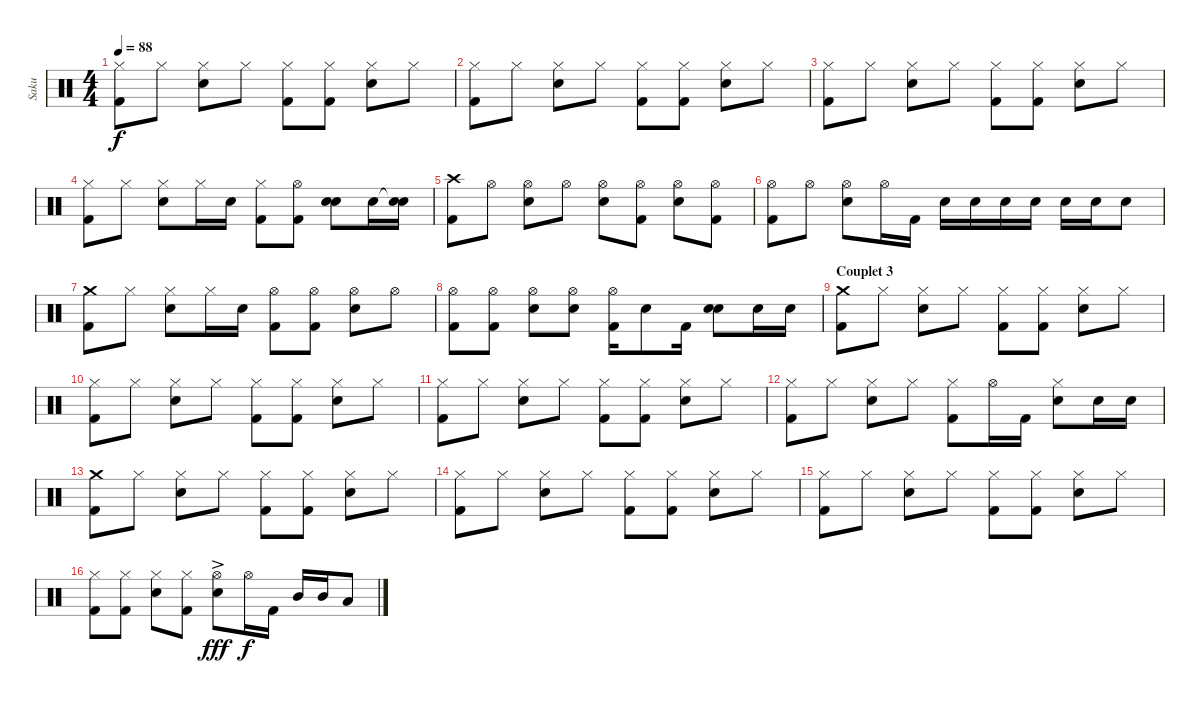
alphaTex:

\track ("Saku" "Saku") {instrument percussion}
\staff {score}
\articulation defaults
\ts (4 4)
\tempo 88
\clef neutral
\ks c
("Hi-Hat (closed)" "Kick (hit) 2").8{dy f} "Hi-Hat (closed)".8 ("Hi-Hat (closed)" "Electric Snare (hit)").8 "Hi-Hat (closed)".8 ("Hi-Hat (closed)" "Kick (hit) 2").8 ("Hi-Hat (closed)" "Kick (hit) 2").8 ("Hi-Hat (closed)" "Electric Snare (hit)").8 "Hi-Hat (closed)".8 |
("Hi-Hat (closed)" "Kick (hit) 2").8 "Hi-Hat (closed)".8 ("Hi-Hat (closed)" "Electric Snare (hit)").8 "Hi-Hat (closed)".8 ("Hi-Hat (closed)" "Kick (hit) 2").8 ("Hi-Hat (closed)" "Kick (hit) 2").8 ("Hi-Hat (closed)" "Electric Snare (hit)").8 "Hi-Hat (closed)".8 |
("Hi-Hat (closed)" "Kick (hit) 2").8 "Hi-Hat (closed)".8 ("Hi-Hat (closed)" "Electric Snare (hit)").8 "Hi-Hat (closed)".8 ("Hi-Hat (closed)" "Kick (hit) 2").8 ("Hi-Hat (closed)" "Kick (hit) 2").8 ("Hi-Hat (closed)" "Electric Snare (hit)").8 "Hi-Hat (closed)".8 |
("Hi-Hat (closed)" "Kick (hit) 2").8 "Hi-Hat (closed)".8 ("Hi-Hat (closed)" "Electric Snare (hit)").8 "Hi-Hat (closed)".16 "Electric Snare (hit)".16 ("Hi-Hat (closed)" "Kick (hit) 2").8 ("Hi-Hat (open)" "Kick (hit) 2").8 ("Electric Snare (hit)" "Electric Snare (hit)").8{bu 60} "Electric Snare (hit)".16 ("Snare (hit)"{t} "Electric Snare (hit)").16 |
("Crash high (hit)" "Kick (hit) 2").8 "Hi-Hat (open)".8 ("Hi-Hat (open)" "Electric Snare (hit)").8 "Hi-Hat (open)".8 ("Hi-Hat (open)" "Electric Snare (hit)").8 ("Hi-Hat (open)" "Kick (hit) 2").8 ("Hi-Hat (open)" "Electric Snare (hit)").8 ("Hi-Hat (open)" "Kick (hit) 2").8 |
("Hi-Hat (open)" "Kick (hit) 2").8 "Hi-Hat (open)".8 ("Hi-Hat (open)" "Electric Snare (hit)").8 "Hi-Hat (open)".16 "Kick (hit) 2".16 "Electric Snare (hit)".16 "Electric Snare (hit)".16 "Electric Snare (hit)".16 "Electric Snare (hit)".16 "Electric Snare (hit)".16 "Electric Snare (hit)".16 "Electric Snare (hit)".8 |
("Crash medium (hit)" "Kick (hit) 2").8 "Hi-Hat (closed)".8 ("Hi-Hat (closed)" "Electric Snare (hit)").8 "Hi-Hat (closed)".16 "Electric Snare (hit)".16 ("Hi-Hat (open)" "Kick (hit) 2").8 ("Hi-Hat (open)" "Kick (hit) 2").8 ("Hi-Hat (open)" "Electric Snare (hit)").8 "Hi-Hat (open)".8 |
("Hi-Hat (open)" "Kick (hit) 2").8 ("Hi-Hat (open)" "Kick (hit) 2").8 ("Hi-Hat (open)" "Electric Snare (hit)").8 ("Hi-Hat (open)" "Electric Snare (hit)").8 ("Hi-Hat (open)" "Kick (hit) 2").16 "Electric Snare (hit)".8 "Kick (hit) 2".16 ("Electric Snare (hit)" "Electric Snare (hit)").8{bu 60} "Electric Snare (hit)".16 "Electric Snare (hit)".16 |
\section ("" "Couplet 3")
("Crash medium (hit)" "Kick (hit) 2").8 "Hi-Hat (closed)".8 ("Hi-Hat (closed)" "Electric Snare (hit)").8 "Hi-Hat (closed)".8 ("Hi-Hat (closed)" "Kick (hit) 2").8 ("Hi-Hat (closed)" "Kick (hit) 2").8 ("Hi-Hat (closed)" "Electric Snare (hit)").8 "Hi-Hat (closed)".8 |
("Hi-Hat (closed)" "Kick (hit) 2").8 "Hi-Hat (closed)".8 ("Hi-Hat (closed)" "Electric Snare (hit)").8 "Hi-Hat (closed)".8 ("Hi-Hat (closed)" "Kick (hit) 2").8 ("Hi-Hat (closed)" "Kick (hit) 2").8 ("Hi-Hat (closed)" "Electric Snare (hit)").8 "Hi-Hat (closed)".8 |
("Hi-Hat (closed)" "Kick (hit) 2").8 "Hi-Hat (closed)".8 ("Hi-Hat (closed)" "Electric Snare (hit)").8 "Hi-Hat (closed)".8 ("Hi-Hat (closed)" "Kick (hit) 2").8 ("Hi-Hat (closed)" "Kick (hit) 2").8 ("Hi-Hat (closed)" "Electric Snare (hit)").8 "Hi-Hat (closed)".8 |
("Hi-Hat (closed)" "Kick (hit) 2").8 "Hi-Hat (closed)".8 ("Hi-Hat (closed)" "Electric Snare (hit)").8 "Hi-Hat (closed)".8 ("Hi-Hat (closed)" "Kick (hit) 2").8 "Hi-Hat (open)".16 "Kick (hit) 2".16 ("Hi-Hat (closed)" "Electric Snare (hit)").8 "Electric Snare (hit)".16 "Electric Snare (hit)".16 |
("Crash medium (hit)" "Kick (hit) 2").8 "Hi-Hat (closed)".8 ("Hi-Hat (closed)" "Electric Snare (hit)").8 "Hi-Hat (closed)".8 ("Hi-Hat (closed)" "Kick (hit) 2").8 ("Hi-Hat (closed)" "Kick (hit) 2").8 ("Hi-Hat (closed)" "Electric Snare (hit)").8 "Hi-Hat (closed)".8 |
("Hi-Hat (closed)" "Kick (hit) 2").8 "Hi-Hat (closed)".8 ("Hi-Hat (closed)" "Electric Snare (hit)").8 "Hi-Hat (closed)".8 ("Hi-Hat (closed)" "Kick (hit) 2").8 ("Hi-Hat (closed)" "Kick (hit) 2").8 ("Hi-Hat (closed)" "Electric Snare (hit)").8 "Hi-Hat (closed)".8 |
("Hi-Hat (closed)" "Kick (hit) 2").8 "Hi-Hat (closed)".8 ("Hi-Hat (closed)" "Electric Snare (hit)").8 "Hi-Hat (closed)".8 ("Hi-Hat (closed)" "Kick (hit) 2").8 ("Hi-Hat (closed)" "Kick (hit) 2").8 ("Hi-Hat (closed)" "Electric Snare (hit)").8 "Hi-Hat (closed)".8 |
("Hi-Hat (closed)" "Kick (hit) 2").8 ("Hi-Hat (closed)" "Kick (hit) 2").8 ("Hi-Hat (closed)" "Electric Snare (hit)").8 ("Hi-Hat (closed)" "Kick (hit) 2").8 ("Hi-Hat (open)" "Electric Snare (hit)"{ac}).8{dy fff} "Hi-Hat (open)".16{dy f} "Kick (hit) 2".16 "Mid Tom (hit)".16 "Mid Tom (hit)".16 "Low Tom (hit)".8
